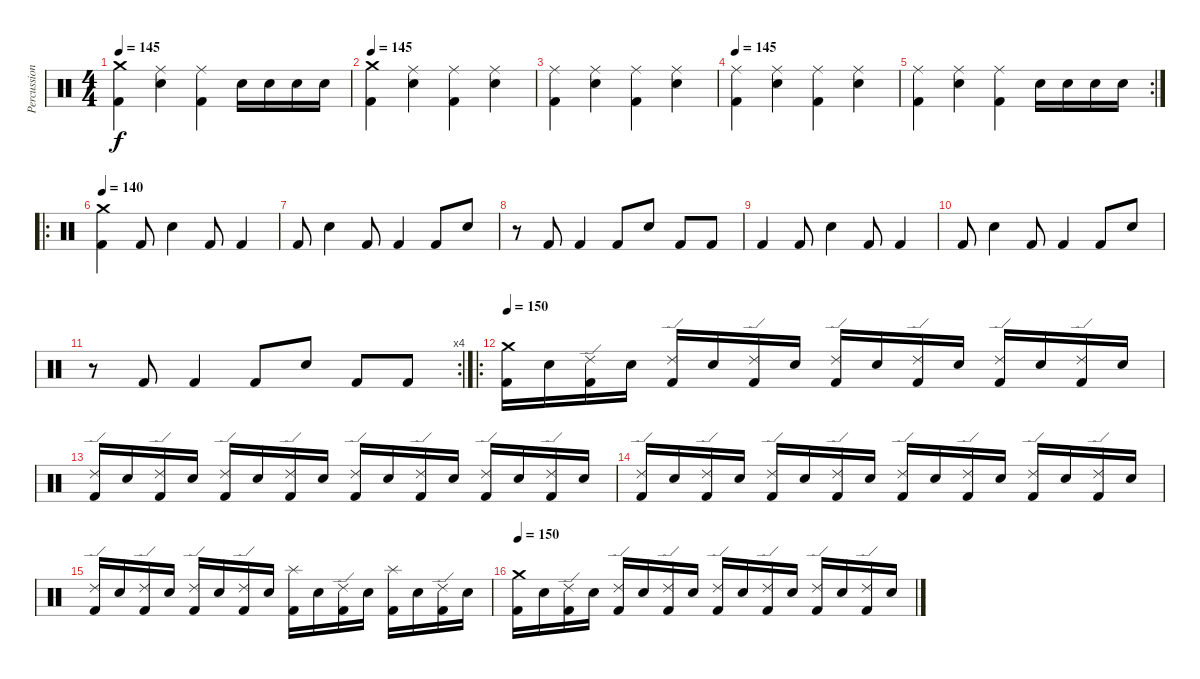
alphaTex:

\track ("Percussions" "Percussion") {instrument percussion}
\staff {score}
\articulation defaults
\ts (4 4)
\tempo 145
\clef neutral
\ks c
("Crash medium (hit)" "Kick (hit) 2").4{dy f} ("Ride (middle)" "Snare (hit) 2").4 ("Ride (middle)" "Kick (hit) 2").4 "Snare (hit) 2".16 "Snare (hit) 2".16 "Snare (hit) 2".16 "Snare (hit) 2".16 |
\tempo 145
("Crash medium (hit)" "Kick (hit) 2").4 ("Ride (middle)" "Snare (hit) 2").4 ("Ride (middle)" "Kick (hit) 2").4 ("Ride (middle)" "Snare (hit) 2").4 |
("Ride (middle)" "Kick (hit) 2").4 ("Ride (middle)" "Snare (hit) 2").4 ("Ride (middle)" "Kick (hit) 2").4 ("Ride (middle)" "Snare (hit) 2").4 |
\tempo 145
("Ride (middle)" "Kick (hit) 2").4 ("Ride (middle)" "Snare (hit) 2").4 ("Ride (middle)" "Kick (hit) 2").4 ("Ride (middle)" "Snare (hit) 2").4 |
\rc 2
("Ride (middle)" "Kick (hit) 2").4 ("Ride (middle)" "Snare (hit) 2").4 ("Ride (middle)" "Kick (hit) 2").4 "Snare (hit) 2".16 "Snare (hit) 2".16 "Snare (hit) 2".16 "Snare (hit) 2".16 |
\ro
\tempo 140
("Crash medium (hit)" "Kick (hit) 2").4 "Kick (hit) 2".8 "Snare (hit) 2".4 "Kick (hit) 2".8 "Kick (hit) 2".4 |
"Kick (hit) 2".8 "Snare (hit) 2".4 "Kick (hit) 2".8 "Kick (hit) 2".4 "Kick (hit) 2".8 "Snare (hit) 2".8 |
r.8 "Kick (hit) 2".8 "Kick (hit) 2".4 "Kick (hit) 2".8 "Snare (hit) 2".8 "Kick (hit) 2".8 "Kick (hit) 2".8 |
"Kick (hit) 2".4 "Kick (hit) 2".8 "Snare (hit) 2".4 "Kick (hit) 2".8 "Kick (hit) 2".4 |
"Kick (hit) 2".8 "Snare (hit) 2".4 "Kick (hit) 2".8 "Kick (hit) 2".4 "Kick (hit) 2".8 "Snare (hit) 2".8 |
\rc 4
r.8 "Kick (hit) 2".8 "Kick (hit) 2".4 "Kick (hit) 2".8 "Snare (hit) 2".8 "Kick (hit) 2".8 "Kick (hit) 2".8 |
\ro
\tempo 150
("Crash medium (hit)" "Kick (hit) 2").16 "Snare (hit) 2".16 ("Ride (edge) 2" "Kick (hit) 2").16 "Snare (hit) 2".16 ("Ride (edge) 2" "Kick (hit) 2").16 "Snare (hit) 2".16 ("Ride (edge) 2" "Kick (hit) 2").16 "Snare (hit) 2".16 ("Ride (edge) 2" "Kick (hit) 2").16 "Snare (hit) 2".16 ("Ride (edge) 2" "Kick (hit) 2").16 "Snare (hit) 2".16 ("Ride (edge) 2" "Kick (hit) 2").16 "Snare (hit) 2".16 ("Ride (edge) 2" "Kick (hit) 2").16 "Snare (hit) 2".16 |
("Ride (edge) 2" "Kick (hit) 2").16 "Snare (hit) 2".16 ("Ride (edge) 2" "Kick (hit) 2").16 "Snare (hit) 2".16 ("Ride (edge) 2" "Kick (hit) 2").16 "Snare (hit) 2".16 ("Ride (edge) 2" "Kick (hit) 2").16 "Snare (hit) 2".16 ("Ride (edge) 2" "Kick (hit) 2").16 "Snare (hit) 2".16 ("Ride (edge) 2" "Kick (hit) 2").16 "Snare (hit) 2".16 ("Ride (edge) 2" "Kick (hit) 2").16 "Snare (hit) 2".16 ("Ride (edge) 2" "Kick (hit) 2").16 "Snare (hit) 2".16 |
("Ride (edge) 2" "Kick (hit) 2").16 "Snare (hit) 2".16 ("Ride (edge) 2" "Kick (hit) 2").16 "Snare (hit) 2".16 ("Ride (edge) 2" "Kick (hit) 2").16 "Snare (hit) 2".16 ("Ride (edge) 2" "Kick (hit) 2").16 "Snare (hit) 2".16 ("Ride (edge) 2" "Kick (hit) 2").16 "Snare (hit) 2".16 ("Ride (edge) 2" "Kick (hit) 2").16 "Snare (hit) 2".16 ("Ride (edge) 2" "Kick (hit) 2").16 "Snare (hit) 2".16 ("Ride (edge) 2" "Kick (hit) 2").16 "Snare (hit) 2".16 |
("Ride (edge) 2" "Kick (hit) 2").16 "Snare (hit) 2".16 ("Ride (edge) 2" "Kick (hit) 2").16 "Snare (hit) 2".16 ("Ride (edge) 2" "Kick (hit) 2").16 "Snare (hit) 2".16 ("Ride (edge) 2" "Kick (hit) 2").16 "Snare (hit) 2".16 ("Splash (hit)" "Kick (hit) 2").16 "Snare (hit) 2".16 ("Ride (edge) 2" "Kick (hit) 2").16 "Snare (hit) 2".16 ("Splash (hit)" "Kick (hit) 2").16 "Snare (hit) 2".16 ("Ride (edge) 2" "Kick (hit) 2").16 "Snare (hit) 2".16 |
\tempo 150
("Crash medium (hit)" "Kick (hit) 2").16 "Snare (hit) 2".16 ("Ride (edge) 2" "Kick (hit) 2").16 "Snare (hit) 2".16 ("Ride (edge) 2" "Kick (hit) 2").16 "Snare (hit) 2".16 ("Ride (edge) 2" "Kick (hit) 2").16 "Snare (hit) 2".16 ("Ride (edge) 2" "Kick (hit) 2").16 "Snare (hit) 2".16 ("Ride (edge) 2" "Kick (hit) 2").16 "Snare (hit) 2".16 ("Ride (edge) 2" "Kick (hit) 2").16 "Snare (hit) 2".16 ("Ride (edge) 2" "Kick (hit) 2").16 "Snare (hit) 2".16
